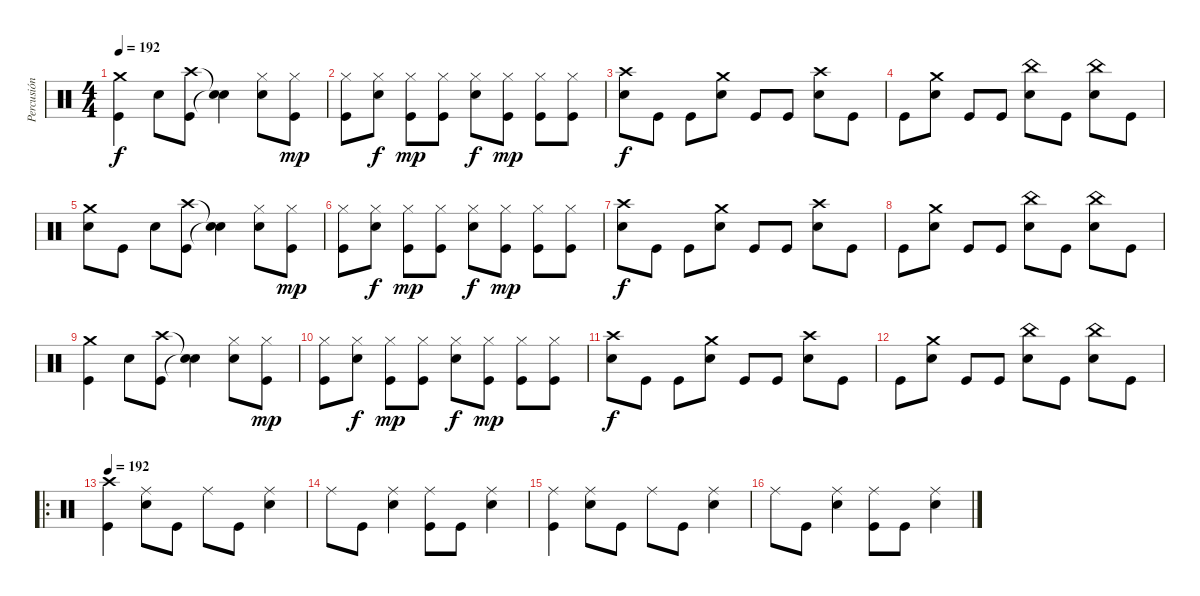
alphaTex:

\track ("Percusión" "Percusión") {instrument percussion}
\staff {score}
\articulation defaults
\ts (4 4)
\tempo 192
\clef neutral
\ks c
("Crash medium (hit)" "Kick (hit)").4{dy f} "Electric Snare (hit)".8 ("Crash high (hit)" "Kick (hit)").8 ("Snare (hit)"{t} "Snare (hit)"{t}).4 ("Hi-Hat (closed)" "Electric Snare (hit)").8 ("Hi-Hat (closed)" "Kick (hit)").8{dy mp} |
("Hi-Hat (closed)" "Kick (hit)").8 ("Hi-Hat (closed)" "Electric Snare (hit)").8{dy f} ("Hi-Hat (closed)" "Kick (hit)").8{dy mp} ("Hi-Hat (closed)" "Kick (hit)").8 ("Hi-Hat (closed)" "Electric Snare (hit)").8{dy f} ("Hi-Hat (closed)" "Kick (hit)").8{dy mp} ("Hi-Hat (closed)" "Kick (hit)").8 ("Hi-Hat (closed)" "Kick (hit)").8 |
("Crash high (hit)" "Electric Snare (hit)").8{dy f} "Kick (hit)".8 "Kick (hit)".8 ("Crash medium (hit)" "Electric Snare (hit)").8 "Kick (hit)".8 "Kick (hit)".8 ("Crash high (hit)" "Electric Snare (hit)").8 "Kick (hit)".8 |
"Kick (hit)".8 ("Crash medium (hit)" "Electric Snare (hit)").8 "Kick (hit)".8 "Kick (hit)".8 ("China (hit)" "Electric Snare (hit)").8 "Kick (hit)".8 ("China (hit)" "Electric Snare (hit)").8 "Kick (hit)".8 |
("Crash medium (hit)" "Electric Snare (hit)").8 "Kick (hit)".8 "Electric Snare (hit)".8 ("Crash high (hit)" "Kick (hit)").8 ("Snare (hit)"{t} "Snare (hit)"{t}).4 ("Hi-Hat (closed)" "Electric Snare (hit)").8 ("Hi-Hat (closed)" "Kick (hit)").8{dy mp} |
("Hi-Hat (closed)" "Kick (hit)").8 ("Hi-Hat (closed)" "Electric Snare (hit)").8{dy f} ("Hi-Hat (closed)" "Kick (hit)").8{dy mp} ("Hi-Hat (closed)" "Kick (hit)").8 ("Hi-Hat (closed)" "Electric Snare (hit)").8{dy f} ("Hi-Hat (closed)" "Kick (hit)").8{dy mp} ("Hi-Hat (closed)" "Kick (hit)").8 ("Hi-Hat (closed)" "Kick (hit)").8 |
("Crash high (hit)" "Electric Snare (hit)").8{dy f} "Kick (hit)".8 "Kick (hit)".8 ("Crash medium (hit)" "Electric Snare (hit)").8 "Kick (hit)".8 "Kick (hit)".8 ("Crash high (hit)" "Electric Snare (hit)").8 "Kick (hit)".8 |
"Kick (hit)".8 ("Crash medium (hit)" "Electric Snare (hit)").8 "Kick (hit)".8 "Kick (hit)".8 ("China (hit)" "Electric Snare (hit)").8 "Kick (hit)".8 ("China (hit)" "Electric Snare (hit)").8 "Kick (hit)".8 |
("Crash medium (hit)" "Kick (hit)").4 "Electric Snare (hit)".8 ("Crash high (hit)" "Kick (hit)").8 ("Snare (hit)"{t} "Snare (hit)"{t}).4 ("Hi-Hat (closed)" "Electric Snare (hit)").8 ("Hi-Hat (closed)" "Kick (hit)").8{dy mp} |
("Hi-Hat (closed)" "Kick (hit)").8 ("Hi-Hat (closed)" "Electric Snare (hit)").8{dy f} ("Hi-Hat (closed)" "Kick (hit)").8{dy mp} ("Hi-Hat (closed)" "Kick (hit)").8 ("Hi-Hat (closed)" "Electric Snare (hit)").8{dy f} ("Hi-Hat (closed)" "Kick (hit)").8{dy mp} ("Hi-Hat (closed)" "Kick (hit)").8 ("Hi-Hat (closed)" "Kick (hit)").8 |
("Crash high (hit)" "Electric Snare (hit)").8{dy f} "Kick (hit)".8 "Kick (hit)".8 ("Crash medium (hit)" "Electric Snare (hit)").8 "Kick (hit)".8 "Kick (hit)".8 ("Crash high (hit)" "Electric Snare (hit)").8 "Kick (hit)".8 |
"Kick (hit)".8 ("Crash medium (hit)" "Electric Snare (hit)").8 "Kick (hit)".8 "Kick (hit)".8 ("China (hit)" "Electric Snare (hit)").8 "Kick (hit)".8 ("China (hit)" "Electric Snare (hit)").8 "Kick (hit)".8 |
\ro
\tempo 192
("Crash high (hit)" "Kick (hit)").4 ("Ride (middle)" "Electric Snare (hit)").8 "Kick (hit)".8 "Ride (middle)".8 "Kick (hit)".8 ("Ride (middle)" "Electric Snare (hit)").4 |
"Ride (middle)".8 "Kick (hit)".8 ("Ride (middle)" "Electric Snare (hit)").4 ("Ride (middle)" "Kick (hit)").8 "Kick (hit)".8 ("Ride (middle)" "Electric Snare (hit)").4 |
("Ride (middle)" "Kick (hit)").4 ("Ride (middle)" "Electric Snare (hit)").8 "Kick (hit)".8 "Ride (middle)".8 "Kick (hit)".8 ("Ride (middle)" "Electric Snare (hit)").4 |
"Ride (middle)".8 "Kick (hit)".8 ("Ride (middle)" "Electric Snare (hit)").4 ("Ride (middle)" "Kick (hit)").8 "Kick (hit)".8 ("Ride (middle)" "Electric Snare (hit)").4
